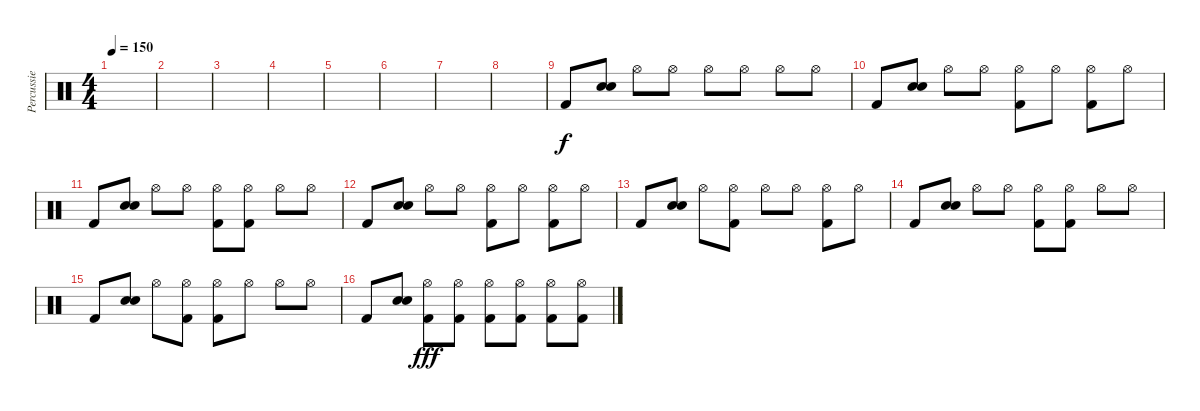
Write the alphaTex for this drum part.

\track ("Percussie" "Percussie") {instrument percussion}
\staff {score}
\articulation defaults
\ts (4 4)
\tempo 150
\clef neutral
\ks c
|
|
|
|
|
|
|
|
"Kick (hit) 2".8 ("Snare (hit) 2" "Snare (hit) 2").8{bd 480} "Hi-Hat (open)".8 "Hi-Hat (open)".8 "Hi-Hat (open)".8 "Hi-Hat (open)".8 "Hi-Hat (open)".8 "Hi-Hat (open)".8 |
"Kick (hit) 2".8 ("Snare (hit) 2" "Snare (hit) 2").8{bd 480} "Hi-Hat (open)".8 "Hi-Hat (open)".8 ("Hi-Hat (open)" "Kick (hit) 2").8 "Hi-Hat (open)".8 ("Hi-Hat (open)" "Kick (hit) 2").8 "Hi-Hat (open)".8 |
"Kick (hit) 2".8 ("Snare (hit) 2" "Snare (hit) 2").8{bd 480} "Hi-Hat (open)".8 "Hi-Hat (open)".8 ("Hi-Hat (open)" "Kick (hit) 2").8 ("Hi-Hat (open)" "Kick (hit) 2").8 "Hi-Hat (open)".8 "Hi-Hat (open)".8 |
"Kick (hit) 2".8 ("Snare (hit) 2" "Snare (hit) 2").8{bd 480} "Hi-Hat (open)".8 "Hi-Hat (open)".8 ("Hi-Hat (open)" "Kick (hit) 2").8 "Hi-Hat (open)".8 ("Hi-Hat (open)" "Kick (hit) 2").8 "Hi-Hat (open)".8 |
"Kick (hit) 2".8 ("Snare (hit) 2" "Snare (hit) 2").8{bd 480} "Hi-Hat (open)".8 ("Hi-Hat (open)" "Kick (hit) 2").8 "Hi-Hat (open)".8 "Hi-Hat (open)".8 ("Hi-Hat (open)" "Kick (hit) 2").8 "Hi-Hat (open)".8 |
"Kick (hit) 2".8 ("Snare (hit) 2" "Snare (hit) 2").8{bd 480} "Hi-Hat (open)".8 "Hi-Hat (open)".8 ("Hi-Hat (open)" "Kick (hit) 2").8 ("Hi-Hat (open)" "Kick (hit) 2").8 "Hi-Hat (open)".8 "Hi-Hat (open)".8 |
"Kick (hit) 2".8 ("Snare (hit) 2" "Snare (hit) 2").8{bd 480} "Hi-Hat (open)".8 ("Hi-Hat (open)" "Kick (hit) 2").8 ("Hi-Hat (open)" "Kick (hit) 2").8 "Hi-Hat (open)".8 "Hi-Hat (open)".8 "Hi-Hat (open)".8 |
"Kick (hit) 2".8 ("Snare (hit) 2" "Snare (hit) 2").8{bd 480} ("Hi-Hat (open)" "Kick (hit) 2").8{dy fff} ("Hi-Hat (open)" "Kick (hit) 2").8 ("Hi-Hat (open)" "Kick (hit) 2").8 ("Hi-Hat (open)" "Kick (hit) 2").8 ("Hi-Hat (open)" "Kick (hit) 2").8 ("Hi-Hat (open)" "Kick (hit) 2").8
